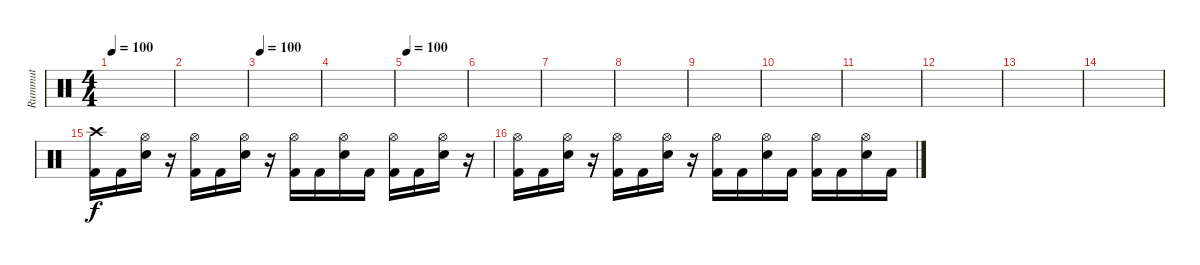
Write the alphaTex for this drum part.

\track ("Rummut" "Rummut") {instrument percussion}
\staff {score}
\articulation defaults
\ts (4 4)
\tempo 100
\clef neutral
\ks c
|
|
\tempo 100
|
|
\tempo 100
|
|
|
|
|
|
|
|
|
|
("Crash high (hit)" "Kick (hit) 2").16 "Kick (hit) 2".16 ("Hi-Hat (open)" "Snare (hit) 2").16 r.16 ("Hi-Hat (open)" "Kick (hit) 2").16 "Kick (hit) 2".16 ("Hi-Hat (open)" "Snare (hit) 2").16 r.16 ("Hi-Hat (open)" "Kick (hit) 2").16 "Kick (hit) 2".16 ("Hi-Hat (open)" "Snare (hit) 2").16 "Kick (hit) 2".16 ("Hi-Hat (open)" "Kick (hit) 2").16 "Kick (hit) 2".16 ("Hi-Hat (open)" "Snare (hit) 2").16 r.16 |
("Hi-Hat (open)" "Kick (hit) 2").16 "Kick (hit) 2".16 ("Hi-Hat (open)" "Snare (hit) 2").16 r.16 ("Hi-Hat (open)" "Kick (hit) 2").16 "Kick (hit) 2".16 ("Hi-Hat (open)" "Snare (hit) 2").16 r.16 ("Hi-Hat (open)" "Kick (hit) 2").16 "Kick (hit) 2".16 ("Hi-Hat (open)" "Snare (hit) 2").16 "Kick (hit) 2".16 ("Hi-Hat (open)" "Kick (hit) 2").16 "Kick (hit) 2".16 ("Hi-Hat (open)" "Snare (hit) 2").16 "Kick (hit) 2".16
